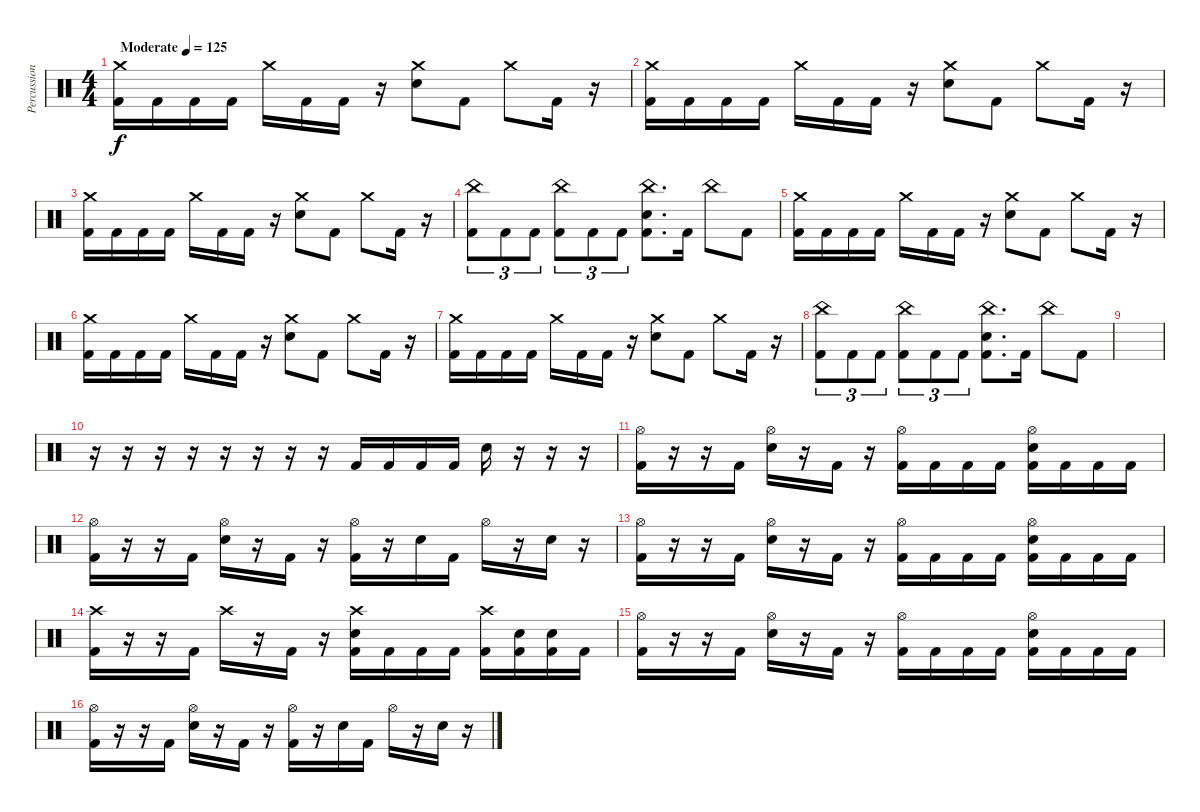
\track ("Percussion" "Percussion") {instrument percussion}
\staff {score}
\articulation defaults
\ts (4 4)
\tempo (125 "Moderate")
\clef neutral
\ks c
("Crash medium (hit)" "Kick (hit) 2").16{dy f} "Kick (hit) 2".16 "Kick (hit) 2".16 "Kick (hit) 2".16 "Crash medium (hit)".16 "Kick (hit) 2".16 "Kick (hit) 2".16 r.16 ("Crash medium (hit)" "Electric Snare (hit)").8 "Kick (hit) 2".8 "Crash medium (hit)".8 "Kick (hit) 2".16 r.16 |
("Crash medium (hit)" "Kick (hit) 2").16 "Kick (hit) 2".16 "Kick (hit) 2".16 "Kick (hit) 2".16 "Crash medium (hit)".16 "Kick (hit) 2".16 "Kick (hit) 2".16 r.16 ("Crash medium (hit)" "Electric Snare (hit)").8 "Kick (hit) 2".8 "Crash medium (hit)".8 "Kick (hit) 2".16 r.16 |
("Crash medium (hit)" "Kick (hit) 2").16 "Kick (hit) 2".16 "Kick (hit) 2".16 "Kick (hit) 2".16 "Crash medium (hit)".16 "Kick (hit) 2".16 "Kick (hit) 2".16 r.16 ("Crash medium (hit)" "Electric Snare (hit)").8 "Kick (hit) 2".8 "Crash medium (hit)".8 "Kick (hit) 2".16 r.16 |
("China (hit)" "Kick (hit) 2").8{tu (3 2)} "Kick (hit) 2".8{tu (3 2)} "Kick (hit) 2".8{tu (3 2)} ("China (hit)" "Kick (hit) 2").8{tu (3 2)} "Kick (hit) 2".8{tu (3 2)} "Kick (hit) 2".8{tu (3 2)} ("China (hit)" "Electric Snare (hit)" "Kick (hit) 2").8{d} "Kick (hit) 2".16 "China (hit)".8 "Kick (hit) 2".8 |
("Crash medium (hit)" "Kick (hit) 2").16 "Kick (hit) 2".16 "Kick (hit) 2".16 "Kick (hit) 2".16 "Crash medium (hit)".16 "Kick (hit) 2".16 "Kick (hit) 2".16 r.16 ("Crash medium (hit)" "Electric Snare (hit)").8 "Kick (hit) 2".8 "Crash medium (hit)".8 "Kick (hit) 2".16 r.16 |
("Crash medium (hit)" "Kick (hit) 2").16 "Kick (hit) 2".16 "Kick (hit) 2".16 "Kick (hit) 2".16 "Crash medium (hit)".16 "Kick (hit) 2".16 "Kick (hit) 2".16 r.16 ("Crash medium (hit)" "Electric Snare (hit)").8 "Kick (hit) 2".8 "Crash medium (hit)".8 "Kick (hit) 2".16 r.16 |
("Crash medium (hit)" "Kick (hit) 2").16 "Kick (hit) 2".16 "Kick (hit) 2".16 "Kick (hit) 2".16 "Crash medium (hit)".16 "Kick (hit) 2".16 "Kick (hit) 2".16 r.16 ("Crash medium (hit)" "Electric Snare (hit)").8 "Kick (hit) 2".8 "Crash medium (hit)".8 "Kick (hit) 2".16 r.16 |
("China (hit)" "Kick (hit) 2").8{tu (3 2)} "Kick (hit) 2".8{tu (3 2)} "Kick (hit) 2".8{tu (3 2)} ("China (hit)" "Kick (hit) 2").8{tu (3 2)} "Kick (hit) 2".8{tu (3 2)} "Kick (hit) 2".8{tu (3 2)} ("China (hit)" "Electric Snare (hit)" "Kick (hit) 2").8{d} "Kick (hit) 2".16 "China (hit)".8 "Kick (hit) 2".8 |
|
r.16 r.16 r.16 r.16 r.16 r.16 r.16 r.16 "Kick (hit) 2".16 "Kick (hit) 2".16 "Kick (hit) 2".16 "Kick (hit) 2".16 "Electric Snare (hit)".16 r.16 r.16 r.16 |
("Hi-Hat (open)" "Kick (hit) 2").16 r.16 r.16 "Kick (hit) 2".16 ("Hi-Hat (open)" "Electric Snare (hit)").16 r.16 "Kick (hit) 2".16 r.16 ("Hi-Hat (open)" "Kick (hit) 2").16 "Kick (hit) 2".16 "Kick (hit) 2".16 "Kick (hit) 2".16 ("Hi-Hat (open)" "Electric Snare (hit)" "Kick (hit) 2").16 "Kick (hit) 2".16 "Kick (hit) 2".16 "Kick (hit) 2".16 |
("Hi-Hat (open)" "Kick (hit) 2").16 r.16 r.16 "Kick (hit) 2".16 ("Hi-Hat (open)" "Electric Snare (hit)").16 r.16 "Kick (hit) 2".16 r.16 ("Hi-Hat (open)" "Kick (hit) 2").16 r.16 "Electric Snare (hit)".16 "Kick (hit) 2".16 "Hi-Hat (open)".16 r.16 "Electric Snare (hit)".16 r.16 |
("Hi-Hat (open)" "Kick (hit) 2").16 r.16 r.16 "Kick (hit) 2".16 ("Hi-Hat (open)" "Electric Snare (hit)").16 r.16 "Kick (hit) 2".16 r.16 ("Hi-Hat (open)" "Kick (hit) 2").16 "Kick (hit) 2".16 "Kick (hit) 2".16 "Kick (hit) 2".16 ("Hi-Hat (open)" "Electric Snare (hit)" "Kick (hit) 2").16 "Kick (hit) 2".16 "Kick (hit) 2".16 "Kick (hit) 2".16 |
("Crash high (hit)" "Kick (hit) 2").16 r.16 r.16 "Kick (hit) 2".16 "Crash high (hit)".16 r.16 "Kick (hit) 2".16 r.16 ("Crash high (hit)" "Electric Snare (hit)" "Kick (hit) 2").16 "Kick (hit) 2".16 "Kick (hit) 2".16 "Kick (hit) 2".16 ("Crash high (hit)" "Kick (hit) 2").16 ("Electric Snare (hit)" "Kick (hit) 2").16 ("Electric Snare (hit)" "Kick (hit) 2").16 "Kick (hit) 2".16 |
("Hi-Hat (open)" "Kick (hit) 2").16 r.16 r.16 "Kick (hit) 2".16 ("Hi-Hat (open)" "Electric Snare (hit)").16 r.16 "Kick (hit) 2".16 r.16 ("Hi-Hat (open)" "Kick (hit) 2").16 "Kick (hit) 2".16 "Kick (hit) 2".16 "Kick (hit) 2".16 ("Hi-Hat (open)" "Electric Snare (hit)" "Kick (hit) 2").16 "Kick (hit) 2".16 "Kick (hit) 2".16 "Kick (hit) 2".16 |
("Hi-Hat (open)" "Kick (hit) 2").16 r.16 r.16 "Kick (hit) 2".16 ("Hi-Hat (open)" "Electric Snare (hit)").16 r.16 "Kick (hit) 2".16 r.16 ("Hi-Hat (open)" "Kick (hit) 2").16 r.16 "Electric Snare (hit)".16 "Kick (hit) 2".16 "Hi-Hat (open)".16 r.16 "Electric Snare (hit)".16 r.16
